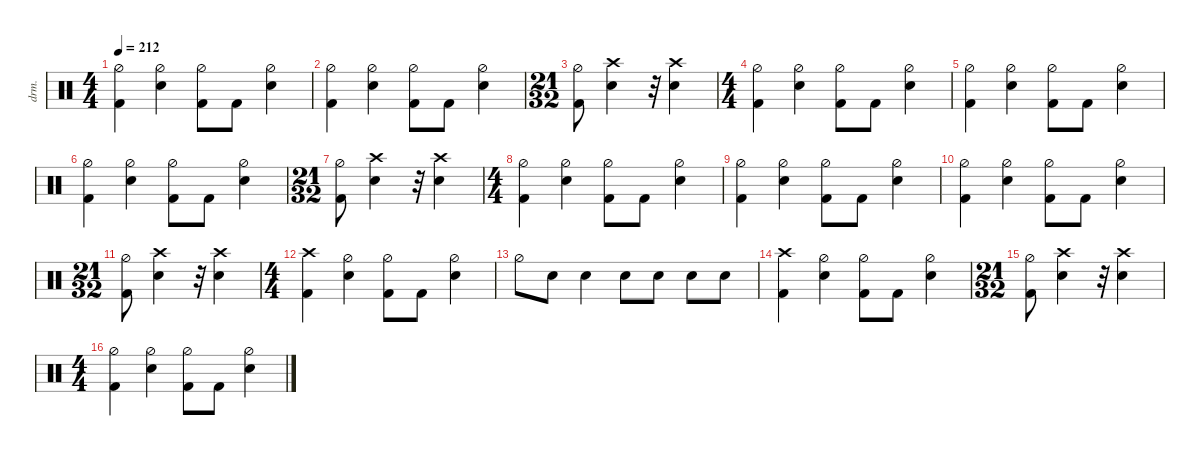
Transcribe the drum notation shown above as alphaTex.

\defaultSystemsLayout 4
\hideDynamics
\bracketExtendMode nobrackets
\track ("Drums" "drm.") {defaultSystemsLayout 4 multiBarRest instrument percussion}
\staff
\articulation defaults
\ts (4 4)
\tempo 212
\clef neutral
\ks c
("Kick (hit) 2" "Hi-Hat (half)").4{dy f} ("Hi-Hat (half)" "Snare (hit) 2").4 ("Hi-Hat (half)" "Kick (hit) 2").8 "Kick (hit) 2".8 ("Hi-Hat (half)" "Snare (hit) 2").4 |
("Hi-Hat (half)" "Kick (hit) 2").4 ("Snare (hit) 2" "Hi-Hat (half)").4 ("Hi-Hat (half)" "Kick (hit) 2").8 "Kick (hit) 2".8 ("Hi-Hat (half)" "Snare (hit) 2").4 |
\ts (21 32)
\beaming (8 3 2)
("Kick (hit) 2" "Hi-Hat (half)").8 ("Snare (hit) 2" "Crash high (hit)").4 r.32 ("Snare (hit) 2" "Crash high (hit)").4 |
\ts (4 4)
\beaming (8 2 2 2 2)
("Kick (hit) 2" "Hi-Hat (half)").4 ("Hi-Hat (half)" "Snare (hit) 2").4 ("Hi-Hat (half)" "Kick (hit) 2").8 "Kick (hit) 2".8 ("Hi-Hat (half)" "Snare (hit) 2").4 |
("Kick (hit) 2" "Hi-Hat (half)").4 ("Hi-Hat (half)" "Snare (hit) 2").4 ("Hi-Hat (half)" "Kick (hit) 2").8 "Kick (hit) 2".8 ("Hi-Hat (half)" "Snare (hit) 2").4 |
("Kick (hit) 2" "Hi-Hat (half)").4 ("Hi-Hat (half)" "Snare (hit) 2").4 ("Hi-Hat (half)" "Kick (hit) 2").8 "Kick (hit) 2".8 ("Hi-Hat (half)" "Snare (hit) 2").4 |
\ts (21 32)
\beaming (8 3 2)
("Kick (hit) 2" "Hi-Hat (half)").8 ("Snare (hit) 2" "Crash high (hit)").4 r.32 ("Snare (hit) 2" "Crash high (hit)").4 |
\ts (4 4)
\beaming (8 2 2 2 2)
("Kick (hit) 2" "Hi-Hat (half)").4 ("Hi-Hat (half)" "Snare (hit) 2").4 ("Hi-Hat (half)" "Kick (hit) 2").8 "Kick (hit) 2".8 ("Hi-Hat (half)" "Snare (hit) 2").4 |
("Kick (hit) 2" "Hi-Hat (half)").4 ("Hi-Hat (half)" "Snare (hit) 2").4 ("Hi-Hat (half)" "Kick (hit) 2").8 "Kick (hit) 2".8 ("Hi-Hat (half)" "Snare (hit) 2").4 |
("Kick (hit) 2" "Hi-Hat (half)").4 ("Hi-Hat (half)" "Snare (hit) 2").4 ("Hi-Hat (half)" "Kick (hit) 2").8 "Kick (hit) 2".8 ("Hi-Hat (half)" "Snare (hit) 2").4 |
\ts (21 32)
\beaming (8 3 2)
("Kick (hit) 2" "Hi-Hat (half)").8 ("Snare (hit) 2" "Crash high (hit)").4 r.32 ("Snare (hit) 2" "Crash high (hit)").4 |
\ts (4 4)
\beaming (8 2 2 2 2)
("Crash high (hit)" "Kick (hit) 2").4 ("Hi-Hat (half)" "Snare (hit) 2").4 ("Hi-Hat (half)" "Kick (hit) 2").8 "Kick (hit) 2".8 ("Hi-Hat (half)" "Snare (hit) 2").4 |
"Hi-Hat (half)".8 "Snare (hit) 2".8 "Snare (hit) 2".4 "Snare (hit) 2".8 "Snare (hit) 2".8 "Snare (hit) 2".8 "Snare (hit) 2".8 |
("Crash high (hit)" "Kick (hit) 2").4 ("Hi-Hat (half)" "Snare (hit) 2").4 ("Hi-Hat (half)" "Kick (hit) 2").8 "Kick (hit) 2".8 ("Hi-Hat (half)" "Snare (hit) 2").4 |
\ts (21 32)
\beaming (8 3 2)
("Kick (hit) 2" "Hi-Hat (half)").8 ("Snare (hit) 2" "Crash high (hit)").4 r.32 ("Snare (hit) 2" "Crash high (hit)").4 |
\ts (4 4)
\beaming (8 2 2 2 2)
("Kick (hit) 2" "Hi-Hat (half)").4 ("Hi-Hat (half)" "Snare (hit) 2").4 ("Hi-Hat (half)" "Kick (hit) 2").8 "Kick (hit) 2".8 ("Hi-Hat (half)" "Snare (hit) 2").4
